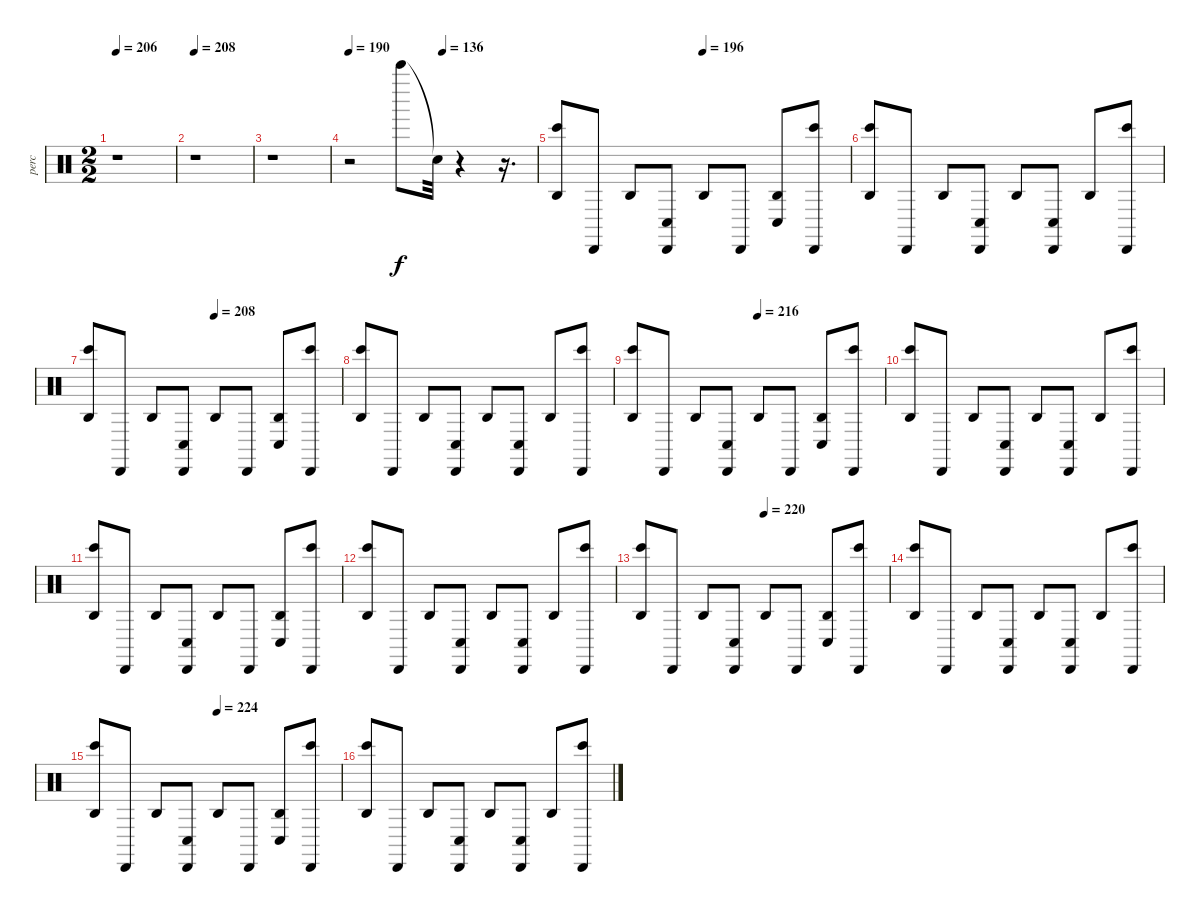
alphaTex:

\track ("perc" "perc") {instrument percussion}
\staff {score}
\articulation defaults
\ts (2 2)
\tempo 206
\clef neutral
\ks c
r.1{dy f} |
\tempo 208
r.1 |
r.1 |
\tempo 190
\tempo (136 0.5)
r.2 "Bell Tree (hit)".8 "Snare (hit)"{t}.32 r.4 r.16{d} |
\tempo (196 0.5)
("Bongo High (hit)" "Agogo high (hit)").8 "Cabasa (hit)".8 "Agogo high (hit)".8 ("Conga low (hit)" "Cabasa (hit)").8 "Agogo high (hit)".8 "Cabasa (hit)".8 ("Conga low (hit)" "Agogo high (hit)").8 ("Bongo High (hit)" "Cabasa (hit)").8 |
("Bongo High (hit)" "Agogo high (hit)").8 "Cabasa (hit)".8 "Agogo high (hit)".8 ("Conga low (hit)" "Cabasa (hit)").8 "Agogo high (hit)".8 ("Conga low (hit)" "Cabasa (hit)").8 "Agogo high (hit)".8 ("Bongo High (hit)" "Cabasa (hit)").8 |
\tempo (208 0.5)
("Bongo High (hit)" "Agogo high (hit)").8 "Cabasa (hit)".8 "Agogo high (hit)".8 ("Conga low (hit)" "Cabasa (hit)").8 "Agogo high (hit)".8 "Cabasa (hit)".8 ("Conga low (hit)" "Agogo high (hit)").8 ("Bongo High (hit)" "Cabasa (hit)").8 |
("Bongo High (hit)" "Agogo high (hit)").8 "Cabasa (hit)".8 "Agogo high (hit)".8 ("Conga low (hit)" "Cabasa (hit)").8 "Agogo high (hit)".8 ("Conga low (hit)" "Cabasa (hit)").8 "Agogo high (hit)".8 ("Bongo High (hit)" "Cabasa (hit)").8 |
\tempo (216 0.5)
("Bongo High (hit)" "Agogo high (hit)").8 "Cabasa (hit)".8 "Agogo high (hit)".8 ("Conga low (hit)" "Cabasa (hit)").8 "Agogo high (hit)".8 "Cabasa (hit)".8 ("Conga low (hit)" "Agogo high (hit)").8 ("Bongo High (hit)" "Cabasa (hit)").8 |
("Bongo High (hit)" "Agogo high (hit)").8 "Cabasa (hit)".8 "Agogo high (hit)".8 ("Conga low (hit)" "Cabasa (hit)").8 "Agogo high (hit)".8 ("Conga low (hit)" "Cabasa (hit)").8 "Agogo high (hit)".8 ("Bongo High (hit)" "Cabasa (hit)").8 |
("Bongo High (hit)" "Agogo high (hit)").8 "Cabasa (hit)".8 "Agogo high (hit)".8 ("Conga low (hit)" "Cabasa (hit)").8 "Agogo high (hit)".8 "Cabasa (hit)".8 ("Conga low (hit)" "Agogo high (hit)").8 ("Bongo High (hit)" "Cabasa (hit)").8 |
("Bongo High (hit)" "Agogo high (hit)").8 "Cabasa (hit)".8 "Agogo high (hit)".8 ("Conga low (hit)" "Cabasa (hit)").8 "Agogo high (hit)".8 ("Conga low (hit)" "Cabasa (hit)").8 "Agogo high (hit)".8 ("Bongo High (hit)" "Cabasa (hit)").8 |
\tempo (220 0.5)
("Bongo High (hit)" "Agogo high (hit)").8 "Cabasa (hit)".8 "Agogo high (hit)".8 ("Conga low (hit)" "Cabasa (hit)").8 "Agogo high (hit)".8 "Cabasa (hit)".8 ("Conga low (hit)" "Agogo high (hit)").8 ("Bongo High (hit)" "Cabasa (hit)").8 |
("Bongo High (hit)" "Agogo high (hit)").8 "Cabasa (hit)".8 "Agogo high (hit)".8 ("Conga low (hit)" "Cabasa (hit)").8 "Agogo high (hit)".8 ("Conga low (hit)" "Cabasa (hit)").8 "Agogo high (hit)".8 ("Bongo High (hit)" "Cabasa (hit)").8 |
\tempo (224 0.5)
("Bongo High (hit)" "Agogo high (hit)").8 "Cabasa (hit)".8 "Agogo high (hit)".8 ("Conga low (hit)" "Cabasa (hit)").8 "Agogo high (hit)".8 "Cabasa (hit)".8 ("Conga low (hit)" "Agogo high (hit)").8 ("Bongo High (hit)" "Cabasa (hit)").8 |
("Bongo High (hit)" "Agogo high (hit)").8 "Cabasa (hit)".8 "Agogo high (hit)".8 ("Conga low (hit)" "Cabasa (hit)").8 "Agogo high (hit)".8 ("Conga low (hit)" "Cabasa (hit)").8 "Agogo high (hit)".8 ("Bongo High (hit)" "Cabasa (hit)").8
